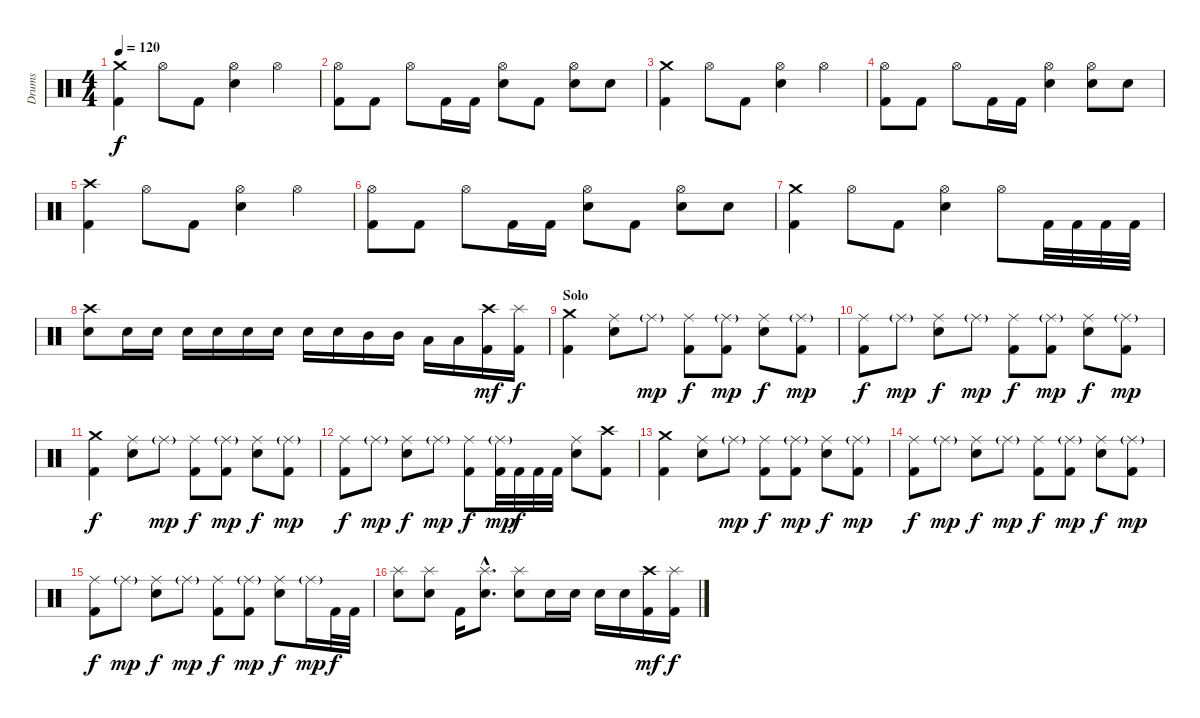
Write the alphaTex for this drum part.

\track ("Drums" "Drums") {instrument percussion}
\staff {score}
\articulation defaults
\ts (4 4)
\tempo 120
\clef neutral
\ks c
("Crash medium (hit)" "Kick (hit) 2").4{dy f} "Hi-Hat (open)".8 "Kick (hit) 2".8 ("Hi-Hat (open)" "Snare (hit) 2").4 "Hi-Hat (open)".4 |
("Hi-Hat (open)" "Kick (hit) 2").8 "Kick (hit) 2".8 "Hi-Hat (open)".8 "Kick (hit) 2".16 "Kick (hit) 2".16 ("Hi-Hat (open)" "Snare (hit) 2").8 "Kick (hit) 2".8 ("Hi-Hat (open)" "Snare (hit) 2").8 "Snare (hit) 2".8 |
("Crash medium (hit)" "Kick (hit) 2").4 "Hi-Hat (open)".8 "Kick (hit) 2".8 ("Hi-Hat (open)" "Snare (hit) 2").4 "Hi-Hat (open)".4 |
("Hi-Hat (open)" "Kick (hit) 2").8 "Kick (hit) 2".8 "Hi-Hat (open)".8 "Kick (hit) 2".16 "Kick (hit) 2".16 ("Hi-Hat (open)" "Snare (hit) 2").4 ("Hi-Hat (open)" "Snare (hit) 2").8 "Snare (hit) 2".8 |
("Crash high (hit)" "Kick (hit) 2").4 "Hi-Hat (open)".8 "Kick (hit) 2".8 ("Hi-Hat (open)" "Snare (hit) 2").4 "Hi-Hat (open)".4 |
("Hi-Hat (open)" "Kick (hit) 2").8 "Kick (hit) 2".8 "Hi-Hat (open)".8 "Kick (hit) 2".16 "Kick (hit) 2".16 ("Hi-Hat (open)" "Snare (hit) 2").8 "Kick (hit) 2".8 ("Hi-Hat (open)" "Snare (hit) 2").8 "Snare (hit) 2".8 |
("Crash medium (hit)" "Kick (hit) 2").4 "Hi-Hat (open)".8 "Kick (hit) 2".8 ("Hi-Hat (open)" "Snare (hit) 2").4 "Hi-Hat (open)".8 "Kick (hit) 2".32 "Kick (hit) 2".32 "Kick (hit) 2".32 "Kick (hit) 2".32 |
("Crash high (hit)" "Snare (hit) 2").8 "Snare (hit) 2".16 "Snare (hit) 2".16 "Snare (hit) 2".16 "Snare (hit) 2".16 "Snare (hit) 2".16 "Snare (hit) 2".16 "Snare (hit) 2".16 "Snare (hit) 2".16 "Mid Tom (hit)".16 "Mid Tom (hit)".16 "Low Tom (hit)".16 "Low Tom (hit)".16 ("Crash high (hit)" "Kick (hit) 2").16{dy mf} ("Splash (hit)" "Kick (hit) 2").16{dy f} |
\section ("" "Solo")
("Crash medium (hit)" "Kick (hit) 2").4 ("Ride (middle)" "Snare (hit) 2").8 "Ride (middle)"{g}.8{dy mp} ("Ride (middle)" "Kick (hit) 2").8{dy f} ("Ride (middle)"{g} "Kick (hit) 2").8{dy mp} ("Ride (middle)" "Snare (hit) 2").8{dy f} ("Ride (middle)"{g} "Kick (hit) 2").8{dy mp} |
("Ride (middle)" "Kick (hit) 2").8{dy f} "Ride (middle)"{g}.8{dy mp} ("Ride (middle)" "Snare (hit) 2").8{dy f} "Ride (middle)"{g}.8{dy mp} ("Ride (middle)" "Kick (hit) 2").8{dy f} ("Ride (middle)"{g} "Kick (hit) 2").8{dy mp} ("Ride (middle)" "Snare (hit) 2").8{dy f} ("Ride (middle)"{g} "Kick (hit) 2").8{dy mp} |
("Crash medium (hit)" "Kick (hit) 2").4{dy f} ("Ride (middle)" "Snare (hit) 2").8 "Ride (middle)"{g}.8{dy mp} ("Ride (middle)" "Kick (hit) 2").8{dy f} ("Ride (middle)"{g} "Kick (hit) 2").8{dy mp} ("Ride (middle)" "Snare (hit) 2").8{dy f} ("Ride (middle)"{g} "Kick (hit) 2").8{dy mp} |
("Ride (middle)" "Kick (hit) 2").8{dy f} "Ride (middle)"{g}.8{dy mp} ("Ride (middle)" "Snare (hit) 2").8{dy f} "Ride (middle)"{g}.8{dy mp} ("Ride (middle)" "Kick (hit) 2").8{dy f} ("Ride (middle)"{g} "Kick (hit) 2").32{dy mp} "Kick (hit) 2".32{dy f} "Kick (hit) 2".32 "Kick (hit) 2".32 ("Ride (middle)" "Snare (hit) 2").8 ("Crash high (hit)" "Kick (hit) 2").8 |
("Crash medium (hit)" "Kick (hit) 2").4 ("Ride (middle)" "Snare (hit) 2").8 "Ride (middle)"{g}.8{dy mp} ("Ride (middle)" "Kick (hit) 2").8{dy f} ("Ride (middle)"{g} "Kick (hit) 2").8{dy mp} ("Ride (middle)" "Snare (hit) 2").8{dy f} ("Ride (middle)"{g} "Kick (hit) 2").8{dy mp} |
("Ride (middle)" "Kick (hit) 2").8{dy f} "Ride (middle)"{g}.8{dy mp} ("Ride (middle)" "Snare (hit) 2").8{dy f} "Ride (middle)"{g}.8{dy mp} ("Ride (middle)" "Kick (hit) 2").8{dy f} ("Ride (middle)"{g} "Kick (hit) 2").8{dy mp} ("Ride (middle)" "Snare (hit) 2").8{dy f} ("Ride (middle)"{g} "Kick (hit) 2").8{dy mp} |
("Ride (middle)" "Kick (hit) 2").8{dy f} "Ride (middle)"{g}.8{dy mp} ("Ride (middle)" "Snare (hit) 2").8{dy f} "Ride (middle)"{g}.8{dy mp} ("Ride (middle)" "Kick (hit) 2").8{dy f} ("Ride (middle)"{g} "Kick (hit) 2").8{dy mp} ("Ride (middle)" "Snare (hit) 2").8{dy f} "Ride (middle)"{g}.16{dy mp} "Kick (hit) 2".32{dy f} "Kick (hit) 2".32 |
("Splash (hit)" "Snare (hit) 2").8 ("Splash (hit)" "Snare (hit) 2").8 "Kick (hit) 2".16 ("Splash (hit)"{hac} "Snare (hit) 2"{hac}).8{d} ("Splash (hit)" "Snare (hit) 2").8 "Snare (hit) 2".16 "Snare (hit) 2".16 "Snare (hit) 2".16 "Snare (hit) 2".16 ("Crash high (hit)" "Kick (hit) 2").16{dy mf} ("Splash (hit)" "Kick (hit) 2").16{dy f}
